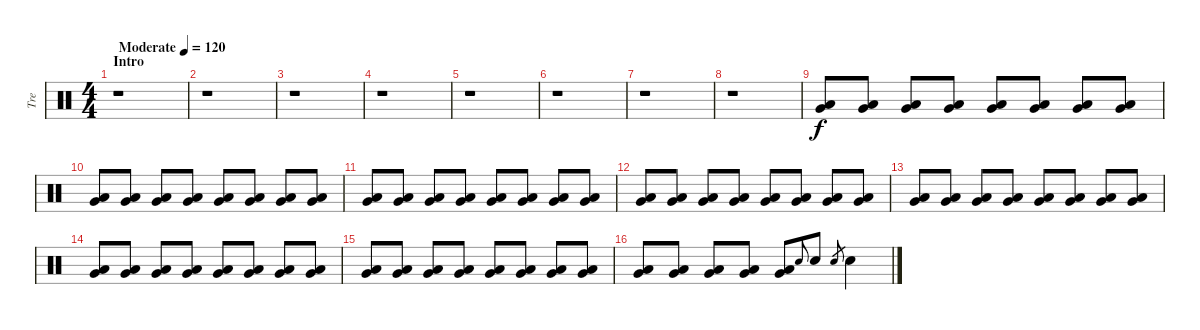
\track ("Tre" "Tre") {instrument percussion}
\staff {score}
\articulation defaults
\ts (4 4)
\section ("" "Intro")
\tempo (120 "Moderate")
\clef neutral
\ks c
r.1{dy f} |
r.1 |
r.1 |
r.1 |
r.1 |
r.1 |
r.1 |
r.1 |
("Very Low Tom (hit)" "Low Floor Tom (hit)").8 ("Very Low Tom (hit)" "Low Floor Tom (hit)").8 ("Very Low Tom (hit)" "Low Floor Tom (hit)").8 ("Very Low Tom (hit)" "Low Floor Tom (hit)").8 ("Very Low Tom (hit)" "Low Floor Tom (hit)").8 ("Very Low Tom (hit)" "Low Floor Tom (hit)").8 ("Very Low Tom (hit)" "Low Floor Tom (hit)").8 ("Very Low Tom (hit)" "Low Floor Tom (hit)").8 |
("Very Low Tom (hit)" "Low Floor Tom (hit)").8 ("Very Low Tom (hit)" "Low Floor Tom (hit)").8 ("Very Low Tom (hit)" "Low Floor Tom (hit)").8 ("Very Low Tom (hit)" "Low Floor Tom (hit)").8 ("Very Low Tom (hit)" "Low Floor Tom (hit)").8 ("Very Low Tom (hit)" "Low Floor Tom (hit)").8 ("Very Low Tom (hit)" "Low Floor Tom (hit)").8 ("Very Low Tom (hit)" "Low Floor Tom (hit)").8 |
("Very Low Tom (hit)" "Low Floor Tom (hit)").8 ("Very Low Tom (hit)" "Low Floor Tom (hit)").8 ("Very Low Tom (hit)" "Low Floor Tom (hit)").8 ("Very Low Tom (hit)" "Low Floor Tom (hit)").8 ("Very Low Tom (hit)" "Low Floor Tom (hit)").8 ("Very Low Tom (hit)" "Low Floor Tom (hit)").8 ("Very Low Tom (hit)" "Low Floor Tom (hit)").8 ("Very Low Tom (hit)" "Low Floor Tom (hit)").8 |
("Very Low Tom (hit)" "Low Floor Tom (hit)").8 ("Very Low Tom (hit)" "Low Floor Tom (hit)").8 ("Very Low Tom (hit)" "Low Floor Tom (hit)").8 ("Very Low Tom (hit)" "Low Floor Tom (hit)").8 ("Very Low Tom (hit)" "Low Floor Tom (hit)").8 ("Very Low Tom (hit)" "Low Floor Tom (hit)").8 ("Very Low Tom (hit)" "Low Floor Tom (hit)").8 ("Very Low Tom (hit)" "Low Floor Tom (hit)").8 |
("Very Low Tom (hit)" "Low Floor Tom (hit)").8 ("Very Low Tom (hit)" "Low Floor Tom (hit)").8 ("Very Low Tom (hit)" "Low Floor Tom (hit)").8 ("Very Low Tom (hit)" "Low Floor Tom (hit)").8 ("Very Low Tom (hit)" "Low Floor Tom (hit)").8 ("Very Low Tom (hit)" "Low Floor Tom (hit)").8 ("Very Low Tom (hit)" "Low Floor Tom (hit)").8 ("Very Low Tom (hit)" "Low Floor Tom (hit)").8 |
("Very Low Tom (hit)" "Low Floor Tom (hit)").8 ("Very Low Tom (hit)" "Low Floor Tom (hit)").8 ("Very Low Tom (hit)" "Low Floor Tom (hit)").8 ("Very Low Tom (hit)" "Low Floor Tom (hit)").8 ("Very Low Tom (hit)" "Low Floor Tom (hit)").8 ("Very Low Tom (hit)" "Low Floor Tom (hit)").8 ("Very Low Tom (hit)" "Low Floor Tom (hit)").8 ("Very Low Tom (hit)" "Low Floor Tom (hit)").8 |
("Very Low Tom (hit)" "Low Floor Tom (hit)").8 ("Very Low Tom (hit)" "Low Floor Tom (hit)").8 ("Very Low Tom (hit)" "Low Floor Tom (hit)").8 ("Very Low Tom (hit)" "Low Floor Tom (hit)").8 ("Very Low Tom (hit)" "Low Floor Tom (hit)").8 ("Very Low Tom (hit)" "Low Floor Tom (hit)").8 ("Very Low Tom (hit)" "Low Floor Tom (hit)").8 ("Very Low Tom (hit)" "Low Floor Tom (hit)").8 |
("Very Low Tom (hit)" "Low Floor Tom (hit)").8 ("Very Low Tom (hit)" "Low Floor Tom (hit)").8 ("Very Low Tom (hit)" "Low Floor Tom (hit)").8 ("Very Low Tom (hit)" "Low Floor Tom (hit)").8 ("Very Low Tom (hit)" "Low Floor Tom (hit)").8 "Snare (hit) 2".8{gr onbeat} "Snare (hit) 2".8 "Snare (hit) 2".8{gr} "Snare (hit) 2".4
